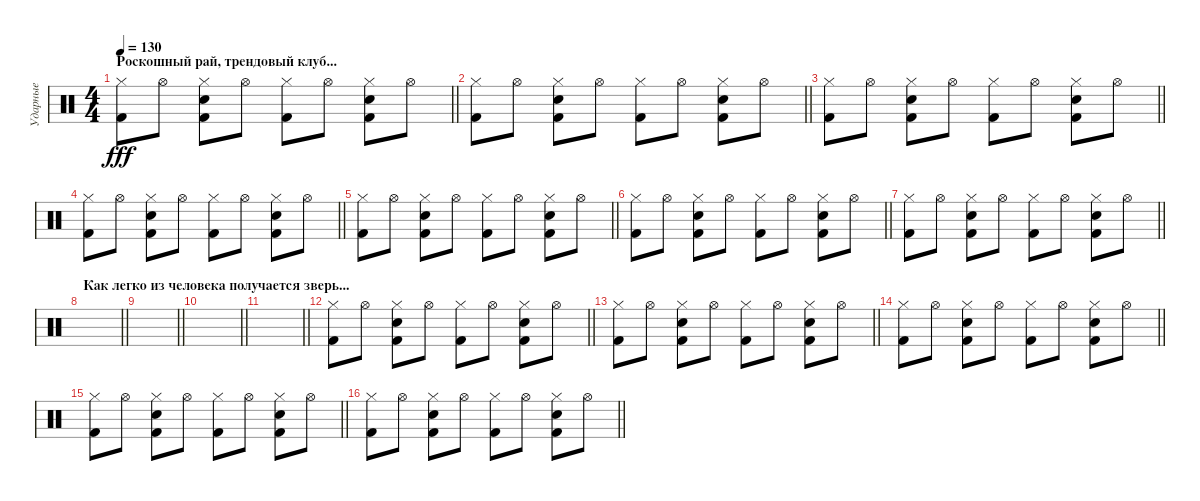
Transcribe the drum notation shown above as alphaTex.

\track ("Ударные" "Ударные") {instrument percussion}
\staff {score}
\articulation defaults
\ts (4 4)
\section ("" "Роскошный рай, трендовый клуб...")
\tempo 130
\clef neutral
\barLineRight lightlight
\ks c
("Kick (hit) 2" "Hi-Hat (closed)").8{dy fff} "Hi-Hat (open)".8 ("Kick (hit) 2" "Hi-Hat (closed)" "Electric Snare (hit)").8 "Hi-Hat (open)".8 ("Kick (hit) 2" "Hi-Hat (closed)").8 "Hi-Hat (open)".8 ("Kick (hit) 2" "Hi-Hat (closed)" "Electric Snare (hit)").8 "Hi-Hat (open)".8 |
\barLineRight lightlight
("Kick (hit) 2" "Hi-Hat (closed)").8 "Hi-Hat (open)".8 ("Kick (hit) 2" "Hi-Hat (closed)" "Electric Snare (hit)").8 "Hi-Hat (open)".8 ("Kick (hit) 2" "Hi-Hat (closed)").8 "Hi-Hat (open)".8 ("Kick (hit) 2" "Hi-Hat (closed)" "Electric Snare (hit)").8 "Hi-Hat (open)".8 |
\barLineRight lightlight
("Kick (hit) 2" "Hi-Hat (closed)").8 "Hi-Hat (open)".8 ("Kick (hit) 2" "Hi-Hat (closed)" "Electric Snare (hit)").8 "Hi-Hat (open)".8 ("Kick (hit) 2" "Hi-Hat (closed)").8 "Hi-Hat (open)".8 ("Kick (hit) 2" "Hi-Hat (closed)" "Electric Snare (hit)").8 "Hi-Hat (open)".8 |
\barLineRight lightlight
("Kick (hit) 2" "Hi-Hat (closed)").8 "Hi-Hat (open)".8 ("Kick (hit) 2" "Hi-Hat (closed)" "Electric Snare (hit)").8 "Hi-Hat (open)".8 ("Kick (hit) 2" "Hi-Hat (closed)").8 "Hi-Hat (open)".8 ("Kick (hit) 2" "Hi-Hat (closed)" "Electric Snare (hit)").8 "Hi-Hat (open)".8 |
\barLineRight lightlight
("Kick (hit) 2" "Hi-Hat (closed)").8 "Hi-Hat (open)".8 ("Kick (hit) 2" "Hi-Hat (closed)" "Electric Snare (hit)").8 "Hi-Hat (open)".8 ("Kick (hit) 2" "Hi-Hat (closed)").8 "Hi-Hat (open)".8 ("Kick (hit) 2" "Hi-Hat (closed)" "Electric Snare (hit)").8 "Hi-Hat (open)".8 |
\barLineRight lightlight
("Kick (hit) 2" "Hi-Hat (closed)").8 "Hi-Hat (open)".8 ("Kick (hit) 2" "Hi-Hat (closed)" "Electric Snare (hit)").8 "Hi-Hat (open)".8 ("Kick (hit) 2" "Hi-Hat (closed)").8 "Hi-Hat (open)".8 ("Kick (hit) 2" "Hi-Hat (closed)" "Electric Snare (hit)").8 "Hi-Hat (open)".8 |
\barLineRight lightlight
("Kick (hit) 2" "Hi-Hat (closed)").8 "Hi-Hat (open)".8 ("Kick (hit) 2" "Hi-Hat (closed)" "Electric Snare (hit)").8 "Hi-Hat (open)".8 ("Kick (hit) 2" "Hi-Hat (closed)").8 "Hi-Hat (open)".8 ("Kick (hit) 2" "Hi-Hat (closed)" "Electric Snare (hit)").8 "Hi-Hat (open)".8 |
\section ("" "Как легко из человека получается зверь...")
\barLineRight lightlight
|
\barLineRight lightlight
|
\barLineRight lightlight
|
\barLineRight lightlight
|
\barLineRight lightlight
("Kick (hit) 2" "Hi-Hat (closed)").8 "Hi-Hat (open)".8 ("Kick (hit) 2" "Hi-Hat (closed)" "Electric Snare (hit)").8 "Hi-Hat (open)".8 ("Kick (hit) 2" "Hi-Hat (closed)").8 "Hi-Hat (open)".8 ("Kick (hit) 2" "Hi-Hat (closed)" "Electric Snare (hit)").8 "Hi-Hat (open)".8 |
\barLineRight lightlight
("Kick (hit) 2" "Hi-Hat (closed)").8 "Hi-Hat (open)".8 ("Kick (hit) 2" "Hi-Hat (closed)" "Electric Snare (hit)").8 "Hi-Hat (open)".8 ("Kick (hit) 2" "Hi-Hat (closed)").8 "Hi-Hat (open)".8 ("Kick (hit) 2" "Hi-Hat (closed)" "Electric Snare (hit)").8 "Hi-Hat (open)".8 |
\barLineRight lightlight
("Kick (hit) 2" "Hi-Hat (closed)").8 "Hi-Hat (open)".8 ("Kick (hit) 2" "Hi-Hat (closed)" "Electric Snare (hit)").8 "Hi-Hat (open)".8 ("Kick (hit) 2" "Hi-Hat (closed)").8 "Hi-Hat (open)".8 ("Kick (hit) 2" "Hi-Hat (closed)" "Electric Snare (hit)").8 "Hi-Hat (open)".8 |
\barLineRight lightlight
("Kick (hit) 2" "Hi-Hat (closed)").8 "Hi-Hat (open)".8 ("Kick (hit) 2" "Hi-Hat (closed)" "Electric Snare (hit)").8 "Hi-Hat (open)".8 ("Kick (hit) 2" "Hi-Hat (closed)").8 "Hi-Hat (open)".8 ("Kick (hit) 2" "Hi-Hat (closed)" "Electric Snare (hit)").8 "Hi-Hat (open)".8 |
\barLineRight lightlight
("Kick (hit) 2" "Hi-Hat (closed)").8 "Hi-Hat (open)".8 ("Kick (hit) 2" "Hi-Hat (closed)" "Electric Snare (hit)").8 "Hi-Hat (open)".8 ("Kick (hit) 2" "Hi-Hat (closed)").8 "Hi-Hat (open)".8 ("Kick (hit) 2" "Hi-Hat (closed)" "Electric Snare (hit)").8 "Hi-Hat (open)".8
